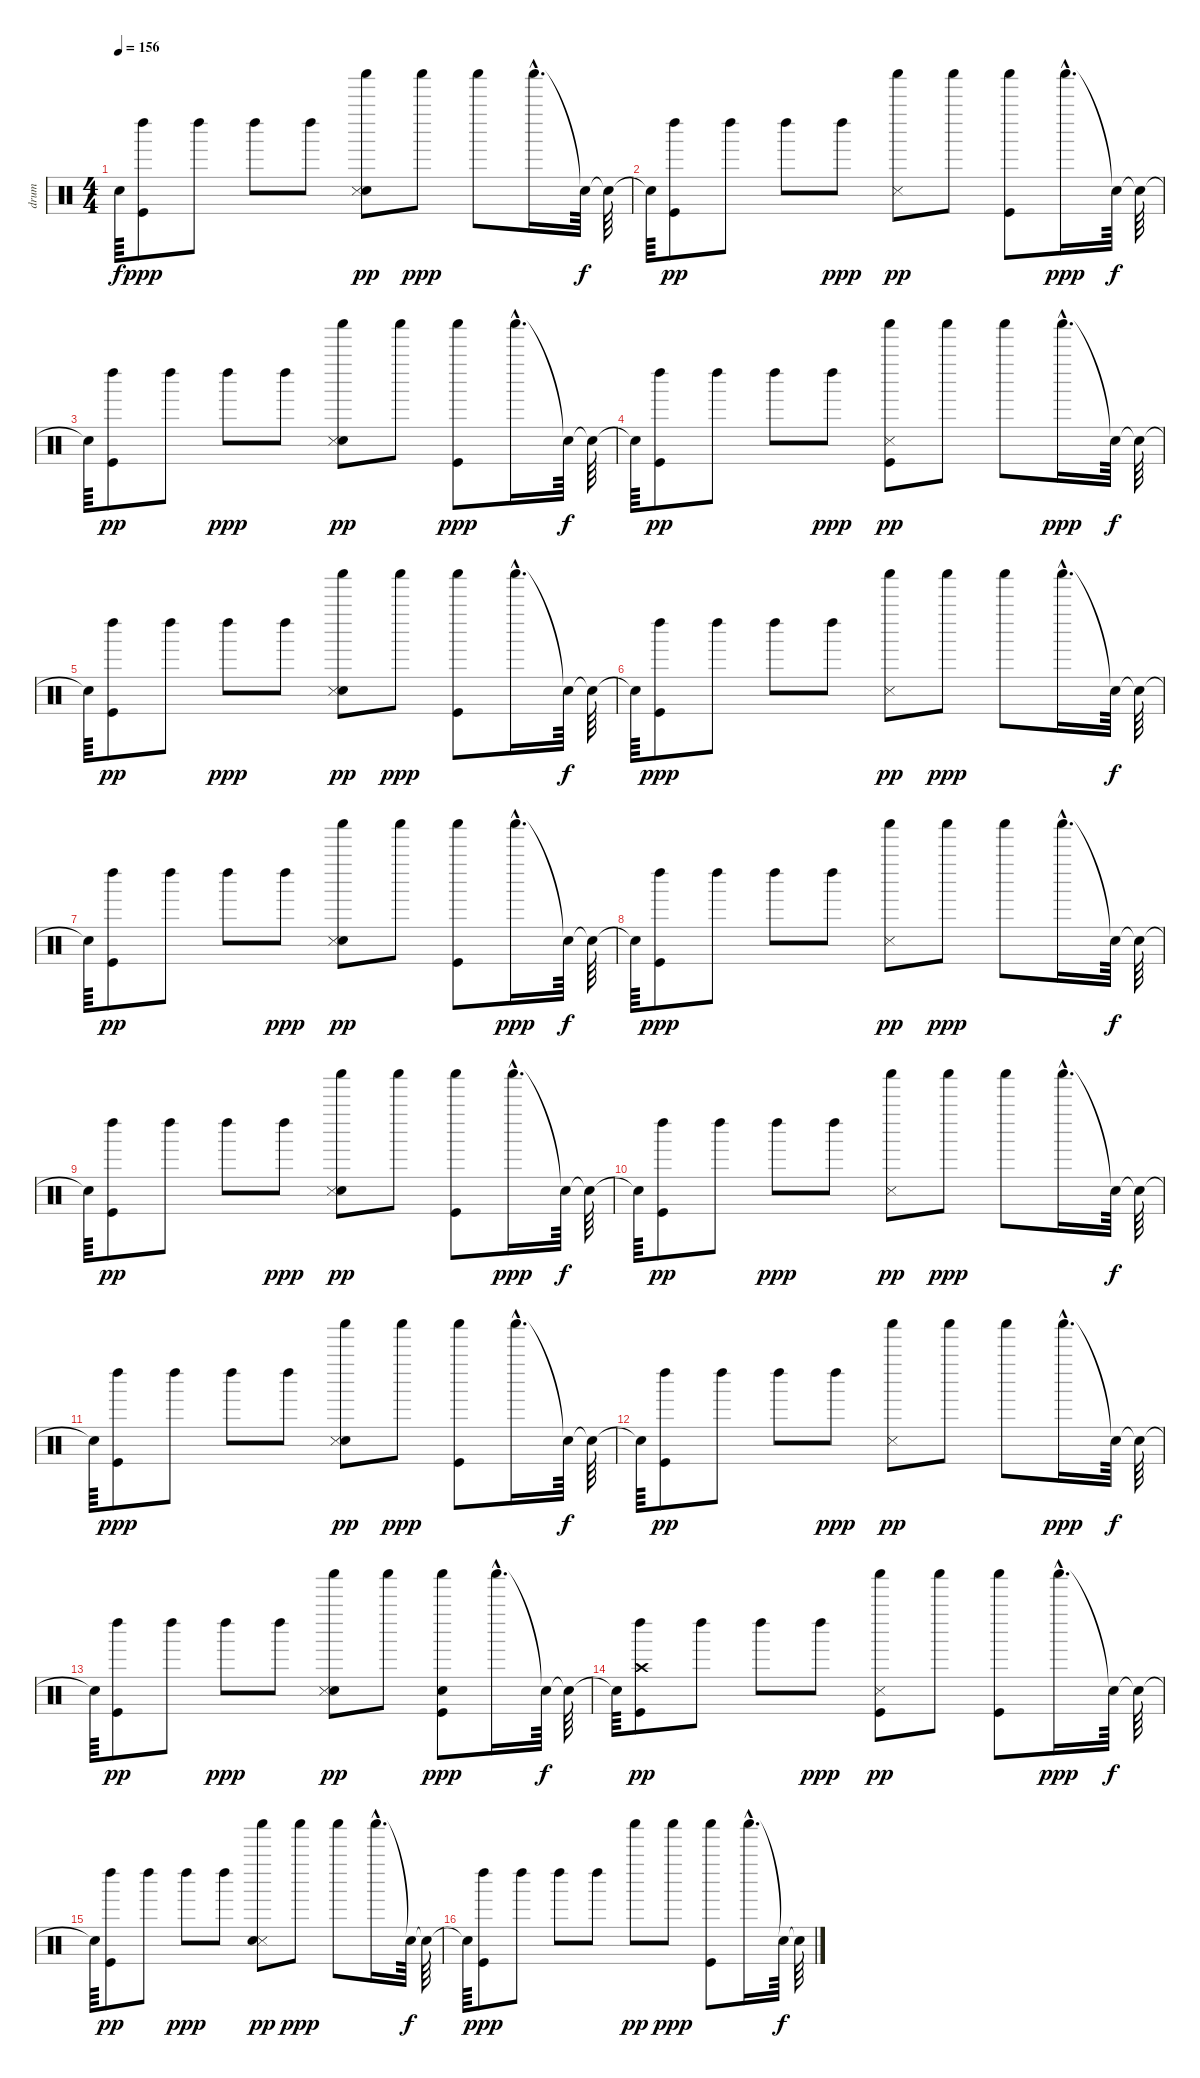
\track ("drum" "drum") {instrument percussion}
\staff {score}
\articulation defaults
\ts (4 4)
\tempo 156
\clef neutral
\ks c "Snare (hit)"{t}.64{dy f}
("Left Maraca (hit)" "Kick (hit)").8{dy ppp} "Left Maraca (hit)".8 "Left Maraca (hit)".8 "Left Maraca (hit)".8 ("Snare (hit) 2" "Shaker (hit)" "Snare (side stick) 3").8{dy pp} "Shaker (hit)".8{dy ppp} "Shaker (hit)".8 "Shaker (hit)"{hac}.16{d} "Snare (hit)"{t}.64{dy f} "Snare (hit)"{t}.64 |
"Snare (hit)"{t}.64 ("Kick (hit)" "Left Maraca (hit)").8{dy pp} "Left Maraca (hit)".8 "Left Maraca (hit)".8 "Left Maraca (hit)".8{dy ppp} ("Snare (side stick) 3" "Shaker (hit)").8{dy pp} "Shaker (hit)".8 ("Kick (hit)" "Shaker (hit)").8 "Shaker (hit)"{hac}.16{d dy ppp} "Snare (hit)"{t}.64{dy f} "Snare (hit)"{t}.64 |
"Snare (hit)"{t}.64 ("Left Maraca (hit)" "Kick (hit)").8{dy pp} "Left Maraca (hit)".8 "Left Maraca (hit)".8{dy ppp} "Left Maraca (hit)".8 ("Snare (hit) 2" "Shaker (hit)" "Snare (side stick) 3").8{dy pp} "Shaker (hit)".8 ("Shaker (hit)" "Kick (hit)").8{dy ppp} "Shaker (hit)"{hac}.16{d} "Snare (hit)"{t}.64{dy f} "Snare (hit)"{t}.64 |
"Snare (hit)"{t}.64 ("Kick (hit)" "Left Maraca (hit)").8{dy pp} "Left Maraca (hit)".8 "Left Maraca (hit)".8 "Left Maraca (hit)".8{dy ppp} ("Snare (side stick) 3" "Shaker (hit)" "Kick (hit)").8{dy pp} "Shaker (hit)".8 "Shaker (hit)".8 "Shaker (hit)"{hac}.16{d dy ppp} "Snare (hit)"{t}.64{dy f} "Snare (hit)"{t}.64 |
"Snare (hit)"{t}.64 ("Left Maraca (hit)" "Kick (hit)").8{dy pp} "Left Maraca (hit)".8 "Left Maraca (hit)".8{dy ppp} "Left Maraca (hit)".8 ("Snare (hit) 2" "Shaker (hit)" "Snare (side stick) 3").8{dy pp} "Shaker (hit)".8{dy ppp} ("Shaker (hit)" "Kick (hit)").8 "Shaker (hit)"{hac}.16{d} "Snare (hit)"{t}.64{dy f} "Snare (hit)"{t}.64 |
"Snare (hit)"{t}.64 ("Kick (hit)" "Left Maraca (hit)").8{dy ppp} "Left Maraca (hit)".8 "Left Maraca (hit)".8 "Left Maraca (hit)".8 ("Snare (side stick) 3" "Shaker (hit)").8{dy pp} "Shaker (hit)".8{dy ppp} "Shaker (hit)".8 "Shaker (hit)"{hac}.16{d} "Snare (hit)"{t}.64{dy f} "Snare (hit)"{t}.64 |
"Snare (hit)"{t}.64 ("Kick (hit)" "Left Maraca (hit)").8{dy pp} "Left Maraca (hit)".8 "Left Maraca (hit)".8 "Left Maraca (hit)".8{dy ppp} ("Snare (hit) 2" "Snare (side stick) 3" "Shaker (hit)").8{dy pp} "Shaker (hit)".8 ("Kick (hit)" "Shaker (hit)").8 "Shaker (hit)"{hac}.16{d dy ppp} "Snare (hit)"{t}.64{dy f} "Snare (hit)"{t}.64 |
"Snare (hit)"{t}.64 ("Left Maraca (hit)" "Kick (hit)").8{dy ppp} "Left Maraca (hit)".8 "Left Maraca (hit)".8 "Left Maraca (hit)".8 ("Snare (side stick) 3" "Shaker (hit)").8{dy pp} "Shaker (hit)".8{dy ppp} "Shaker (hit)".8 "Shaker (hit)"{hac}.16{d} "Snare (hit)"{t}.64{dy f} "Snare (hit)"{t}.64 |
"Snare (hit)"{t}.64 ("Left Maraca (hit)" "Kick (hit)").8{dy pp} "Left Maraca (hit)".8 "Left Maraca (hit)".8 "Left Maraca (hit)".8{dy ppp} ("Snare (hit) 2" "Snare (side stick) 3" "Shaker (hit)").8{dy pp} "Shaker (hit)".8 ("Kick (hit)" "Shaker (hit)").8 "Shaker (hit)"{hac}.16{d dy ppp} "Snare (hit)"{t}.64{dy f} "Snare (hit)"{t}.64 |
"Snare (hit)"{t}.64 ("Kick (hit)" "Left Maraca (hit)").8{dy pp} "Left Maraca (hit)".8 "Left Maraca (hit)".8{dy ppp} "Left Maraca (hit)".8 ("Snare (side stick) 3" "Shaker (hit)").8{dy pp} "Shaker (hit)".8{dy ppp} "Shaker (hit)".8 "Shaker (hit)"{hac}.16{d} "Snare (hit)"{t}.64{dy f} "Snare (hit)"{t}.64 |
"Snare (hit)"{t}.64 ("Left Maraca (hit)" "Kick (hit)").8{dy ppp} "Left Maraca (hit)".8 "Left Maraca (hit)".8 "Left Maraca (hit)".8 ("Snare (hit) 2" "Shaker (hit)" "Snare (side stick) 3").8{dy pp} "Shaker (hit)".8{dy ppp} ("Kick (hit)" "Shaker (hit)").8 "Shaker (hit)"{hac}.16{d} "Snare (hit)"{t}.64{dy f} "Snare (hit)"{t}.64 |
"Snare (hit)"{t}.64 ("Kick (hit)" "Left Maraca (hit)").8{dy pp} "Left Maraca (hit)".8 "Left Maraca (hit)".8 "Left Maraca (hit)".8{dy ppp} ("Snare (side stick) 3" "Shaker (hit)").8{dy pp} "Shaker (hit)".8 "Shaker (hit)".8 "Shaker (hit)"{hac}.16{d dy ppp} "Snare (hit)"{t}.64{dy f} "Snare (hit)"{t}.64 |
"Snare (hit)"{t}.64 ("Left Maraca (hit)" "Kick (hit)").8{dy pp} "Left Maraca (hit)".8 "Left Maraca (hit)".8{dy ppp} "Left Maraca (hit)".8 ("Snare (hit) 2" "Shaker (hit)" "Snare (side stick) 3").8{dy pp} "Shaker (hit)".8 ("Snare (hit) 2" "Shaker (hit)" "Kick (hit)").8{dy ppp} "Shaker (hit)"{hac}.16{d} "Snare (hit)"{t}.64{dy f} "Snare (hit)"{t}.64 |
"Snare (hit)"{t}.64 ("Crash high (hit)" "Kick (hit)" "Left Maraca (hit)").8{dy pp} "Left Maraca (hit)".8 "Left Maraca (hit)".8 "Left Maraca (hit)".8{dy ppp} ("Snare (side stick) 3" "Shaker (hit)" "Kick (hit)").8{dy pp} "Shaker (hit)".8 ("Shaker (hit)" "Kick (hit)").8 "Shaker (hit)"{hac}.16{d dy ppp} "Snare (hit)"{t}.64{dy f} "Snare (hit)"{t}.64 |
"Snare (hit)"{t}.64 ("Left Maraca (hit)" "Kick (hit)").8{dy pp} "Left Maraca (hit)".8 "Left Maraca (hit)".8{dy ppp} "Left Maraca (hit)".8 ("Snare (side stick) 3" "Snare (hit) 2" "Shaker (hit)").8{dy pp} "Shaker (hit)".8{dy ppp} "Shaker (hit)".8 "Shaker (hit)"{hac}.16{d} "Snare (hit)"{t}.64{dy f} "Snare (hit)"{t}.64 |
"Snare (hit)"{t}.64 ("Kick (hit)" "Left Maraca (hit)").8{dy ppp} "Left Maraca (hit)".8 "Left Maraca (hit)".8 "Left Maraca (hit)".8 "Shaker (hit)".8{dy pp} "Shaker (hit)".8{dy ppp} ("Kick (hit)" "Shaker (hit)").8 "Shaker (hit)"{hac}.16{d} "Snare (hit)"{t}.64{dy f} "Snare (hit)"{t}.64
